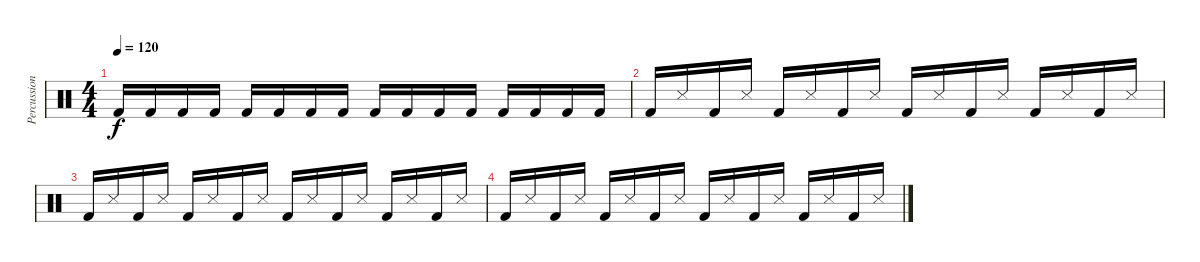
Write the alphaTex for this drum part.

\track ("Percussion" "Percussion") {instrument percussion}
\staff {score}
\articulation defaults
\ts (4 4)
\tempo 120
\clef neutral
\ks c "Kick (hit) 2".16{dy f} "Kick (hit) 2".16 "Kick (hit) 2".16 "Kick (hit) 2".16 "Kick (hit) 2".16 "Kick (hit) 2".16 "Kick (hit) 2".16 "Kick (hit) 2".16 "Kick (hit) 2".16 "Kick (hit) 2".16 "Kick (hit) 2".16 "Kick (hit) 2".16 "Kick (hit) 2".16 "Kick (hit) 2".16 "Kick (hit) 2".16 "Kick (hit) 2".16
|
"Kick (hit) 2".16 "Snare (side stick) 3".16 "Kick (hit) 2".16 "Snare (side stick) 3".16 "Kick (hit) 2".16 "Snare (side stick) 3".16 "Kick (hit) 2".16 "Snare (side stick) 3".16 "Kick (hit) 2".16 "Snare (side stick) 3".16 "Kick (hit) 2".16 "Snare (side stick) 3".16 "Kick (hit) 2".16 "Snare (side stick) 3".16 "Kick (hit) 2".16 "Snare (side stick) 3".16 |
"Kick (hit) 2".16 "Snare (side stick) 3".16 "Kick (hit) 2".16 "Snare (side stick) 3".16 "Kick (hit) 2".16 "Snare (side stick) 3".16 "Kick (hit) 2".16 "Snare (side stick) 3".16 "Kick (hit) 2".16 "Snare (side stick) 3".16 "Kick (hit) 2".16 "Snare (side stick) 3".16 "Kick (hit) 2".16 "Snare (side stick) 3".16 "Kick (hit) 2".16 "Snare (side stick) 3".16 |
"Kick (hit) 2".16 "Snare (side stick) 3".16 "Kick (hit) 2".16 "Snare (side stick) 3".16 "Kick (hit) 2".16 "Snare (side stick) 3".16 "Kick (hit) 2".16 "Snare (side stick) 3".16 "Kick (hit) 2".16 "Snare (side stick) 3".16 "Kick (hit) 2".16 "Snare (side stick) 3".16 "Kick (hit) 2".16 "Snare (side stick) 3".16 "Kick (hit) 2".16 "Snare (side stick) 3".16
